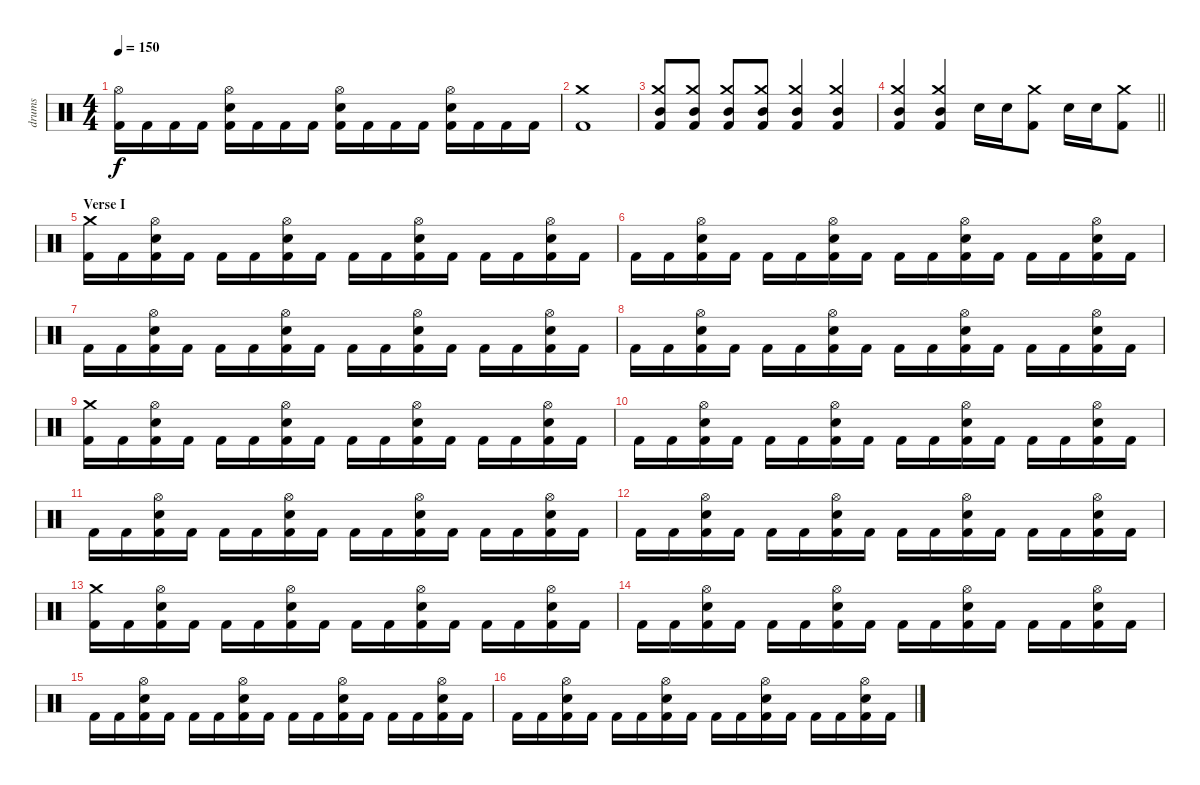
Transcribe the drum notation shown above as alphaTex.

\track ("drums" "drums") {instrument percussion}
\staff {score}
\articulation defaults
\ts (4 4)
\tempo 150
\clef neutral
\ks c
("Hi-Hat (open)" "Kick (hit) 2").16{dy f} "Kick (hit) 2".16 "Kick (hit) 2".16 "Kick (hit) 2".16 ("Hi-Hat (open)" "Electric Snare (hit)" "Kick (hit) 2").16 "Kick (hit) 2".16 "Kick (hit) 2".16 "Kick (hit) 2".16 ("Hi-Hat (open)" "Electric Snare (hit)" "Kick (hit) 2").16 "Kick (hit) 2".16 "Kick (hit) 2".16 "Kick (hit) 2".16 ("Hi-Hat (open)" "Electric Snare (hit)" "Kick (hit) 2").16 "Kick (hit) 2".16 "Kick (hit) 2".16 "Kick (hit) 2".16 |
("Crash medium (hit)" "Kick (hit) 2").1 |
("Crash medium (hit)" "Mid Tom (hit)" "Kick (hit) 2").8 ("Crash medium (hit)" "Mid Tom (hit)" "Kick (hit) 2").8 ("Crash medium (hit)" "Mid Tom (hit)" "Kick (hit) 2").8 ("Crash medium (hit)" "Mid Tom (hit)" "Kick (hit) 2").8 ("Crash medium (hit)" "Mid Tom (hit)" "Kick (hit) 2").4 ("Crash medium (hit)" "Mid Tom (hit)" "Kick (hit) 2").4 |
\barLineRight lightlight
("Crash medium (hit)" "Mid Tom (hit)" "Kick (hit) 2").4 ("Crash medium (hit)" "Mid Tom (hit)" "Kick (hit) 2").4 "Electric Snare (hit)".16 "Electric Snare (hit)".16 ("Crash medium (hit)" "Kick (hit) 2").8 "Electric Snare (hit)".16 "Electric Snare (hit)".16 ("Crash medium (hit)" "Kick (hit) 2").8 |
\section ("" "Verse I")
("Crash medium (hit)" "Kick (hit) 2").16 "Kick (hit) 2".16 ("Hi-Hat (open)" "Electric Snare (hit)" "Kick (hit) 2").16 "Kick (hit) 2".16 "Kick (hit) 2".16 "Kick (hit) 2".16 ("Hi-Hat (open)" "Electric Snare (hit)" "Kick (hit) 2").16 "Kick (hit) 2".16 "Kick (hit) 2".16 "Kick (hit) 2".16 ("Hi-Hat (open)" "Electric Snare (hit)" "Kick (hit) 2").16 "Kick (hit) 2".16 "Kick (hit) 2".16 "Kick (hit) 2".16 ("Hi-Hat (open)" "Electric Snare (hit)" "Kick (hit) 2").16 "Kick (hit) 2".16 |
"Kick (hit) 2".16 "Kick (hit) 2".16 ("Hi-Hat (open)" "Electric Snare (hit)" "Kick (hit) 2").16 "Kick (hit) 2".16 "Kick (hit) 2".16 "Kick (hit) 2".16 ("Hi-Hat (open)" "Electric Snare (hit)" "Kick (hit) 2").16 "Kick (hit) 2".16 "Kick (hit) 2".16 "Kick (hit) 2".16 ("Hi-Hat (open)" "Electric Snare (hit)" "Kick (hit) 2").16 "Kick (hit) 2".16 "Kick (hit) 2".16 "Kick (hit) 2".16 ("Hi-Hat (open)" "Electric Snare (hit)" "Kick (hit) 2").16 "Kick (hit) 2".16 |
"Kick (hit) 2".16 "Kick (hit) 2".16 ("Hi-Hat (open)" "Electric Snare (hit)" "Kick (hit) 2").16 "Kick (hit) 2".16 "Kick (hit) 2".16 "Kick (hit) 2".16 ("Hi-Hat (open)" "Electric Snare (hit)" "Kick (hit) 2").16 "Kick (hit) 2".16 "Kick (hit) 2".16 "Kick (hit) 2".16 ("Hi-Hat (open)" "Electric Snare (hit)" "Kick (hit) 2").16 "Kick (hit) 2".16 "Kick (hit) 2".16 "Kick (hit) 2".16 ("Hi-Hat (open)" "Electric Snare (hit)" "Kick (hit) 2").16 "Kick (hit) 2".16 |
"Kick (hit) 2".16 "Kick (hit) 2".16 ("Hi-Hat (open)" "Electric Snare (hit)" "Kick (hit) 2").16 "Kick (hit) 2".16 "Kick (hit) 2".16 "Kick (hit) 2".16 ("Hi-Hat (open)" "Electric Snare (hit)" "Kick (hit) 2").16 "Kick (hit) 2".16 "Kick (hit) 2".16 "Kick (hit) 2".16 ("Hi-Hat (open)" "Electric Snare (hit)" "Kick (hit) 2").16 "Kick (hit) 2".16 "Kick (hit) 2".16 "Kick (hit) 2".16 ("Hi-Hat (open)" "Electric Snare (hit)" "Kick (hit) 2").16 "Kick (hit) 2".16 |
("Crash medium (hit)" "Kick (hit) 2").16 "Kick (hit) 2".16 ("Hi-Hat (open)" "Electric Snare (hit)" "Kick (hit) 2").16 "Kick (hit) 2".16 "Kick (hit) 2".16 "Kick (hit) 2".16 ("Hi-Hat (open)" "Electric Snare (hit)" "Kick (hit) 2").16 "Kick (hit) 2".16 "Kick (hit) 2".16 "Kick (hit) 2".16 ("Hi-Hat (open)" "Electric Snare (hit)" "Kick (hit) 2").16 "Kick (hit) 2".16 "Kick (hit) 2".16 "Kick (hit) 2".16 ("Hi-Hat (open)" "Electric Snare (hit)" "Kick (hit) 2").16 "Kick (hit) 2".16 |
"Kick (hit) 2".16 "Kick (hit) 2".16 ("Hi-Hat (open)" "Electric Snare (hit)" "Kick (hit) 2").16 "Kick (hit) 2".16 "Kick (hit) 2".16 "Kick (hit) 2".16 ("Hi-Hat (open)" "Electric Snare (hit)" "Kick (hit) 2").16 "Kick (hit) 2".16 "Kick (hit) 2".16 "Kick (hit) 2".16 ("Hi-Hat (open)" "Electric Snare (hit)" "Kick (hit) 2").16 "Kick (hit) 2".16 "Kick (hit) 2".16 "Kick (hit) 2".16 ("Hi-Hat (open)" "Electric Snare (hit)" "Kick (hit) 2").16 "Kick (hit) 2".16 |
"Kick (hit) 2".16 "Kick (hit) 2".16 ("Hi-Hat (open)" "Electric Snare (hit)" "Kick (hit) 2").16 "Kick (hit) 2".16 "Kick (hit) 2".16 "Kick (hit) 2".16 ("Hi-Hat (open)" "Electric Snare (hit)" "Kick (hit) 2").16 "Kick (hit) 2".16 "Kick (hit) 2".16 "Kick (hit) 2".16 ("Hi-Hat (open)" "Electric Snare (hit)" "Kick (hit) 2").16 "Kick (hit) 2".16 "Kick (hit) 2".16 "Kick (hit) 2".16 ("Hi-Hat (open)" "Electric Snare (hit)" "Kick (hit) 2").16 "Kick (hit) 2".16 |
"Kick (hit) 2".16 "Kick (hit) 2".16 ("Hi-Hat (open)" "Electric Snare (hit)" "Kick (hit) 2").16 "Kick (hit) 2".16 "Kick (hit) 2".16 "Kick (hit) 2".16 ("Hi-Hat (open)" "Electric Snare (hit)" "Kick (hit) 2").16 "Kick (hit) 2".16 "Kick (hit) 2".16 "Kick (hit) 2".16 ("Hi-Hat (open)" "Electric Snare (hit)" "Kick (hit) 2").16 "Kick (hit) 2".16 "Kick (hit) 2".16 "Kick (hit) 2".16 ("Hi-Hat (open)" "Electric Snare (hit)" "Kick (hit) 2").16 "Kick (hit) 2".16 |
("Crash medium (hit)" "Kick (hit) 2").16 "Kick (hit) 2".16 ("Hi-Hat (open)" "Electric Snare (hit)" "Kick (hit) 2").16 "Kick (hit) 2".16 "Kick (hit) 2".16 "Kick (hit) 2".16 ("Hi-Hat (open)" "Electric Snare (hit)" "Kick (hit) 2").16 "Kick (hit) 2".16 "Kick (hit) 2".16 "Kick (hit) 2".16 ("Hi-Hat (open)" "Electric Snare (hit)" "Kick (hit) 2").16 "Kick (hit) 2".16 "Kick (hit) 2".16 "Kick (hit) 2".16 ("Hi-Hat (open)" "Electric Snare (hit)" "Kick (hit) 2").16 "Kick (hit) 2".16 |
"Kick (hit) 2".16 "Kick (hit) 2".16 ("Hi-Hat (open)" "Electric Snare (hit)" "Kick (hit) 2").16 "Kick (hit) 2".16 "Kick (hit) 2".16 "Kick (hit) 2".16 ("Hi-Hat (open)" "Electric Snare (hit)" "Kick (hit) 2").16 "Kick (hit) 2".16 "Kick (hit) 2".16 "Kick (hit) 2".16 ("Hi-Hat (open)" "Electric Snare (hit)" "Kick (hit) 2").16 "Kick (hit) 2".16 "Kick (hit) 2".16 "Kick (hit) 2".16 ("Hi-Hat (open)" "Electric Snare (hit)" "Kick (hit) 2").16 "Kick (hit) 2".16 |
"Kick (hit) 2".16 "Kick (hit) 2".16 ("Hi-Hat (open)" "Electric Snare (hit)" "Kick (hit) 2").16 "Kick (hit) 2".16 "Kick (hit) 2".16 "Kick (hit) 2".16 ("Hi-Hat (open)" "Electric Snare (hit)" "Kick (hit) 2").16 "Kick (hit) 2".16 "Kick (hit) 2".16 "Kick (hit) 2".16 ("Hi-Hat (open)" "Electric Snare (hit)" "Kick (hit) 2").16 "Kick (hit) 2".16 "Kick (hit) 2".16 "Kick (hit) 2".16 ("Hi-Hat (open)" "Electric Snare (hit)" "Kick (hit) 2").16 "Kick (hit) 2".16 |
"Kick (hit) 2".16 "Kick (hit) 2".16 ("Hi-Hat (open)" "Electric Snare (hit)" "Kick (hit) 2").16 "Kick (hit) 2".16 "Kick (hit) 2".16 "Kick (hit) 2".16 ("Hi-Hat (open)" "Electric Snare (hit)" "Kick (hit) 2").16 "Kick (hit) 2".16 "Kick (hit) 2".16 "Kick (hit) 2".16 ("Hi-Hat (open)" "Electric Snare (hit)" "Kick (hit) 2").16 "Kick (hit) 2".16 "Kick (hit) 2".16 "Kick (hit) 2".16 ("Hi-Hat (open)" "Electric Snare (hit)" "Kick (hit) 2").16 "Kick (hit) 2".16
